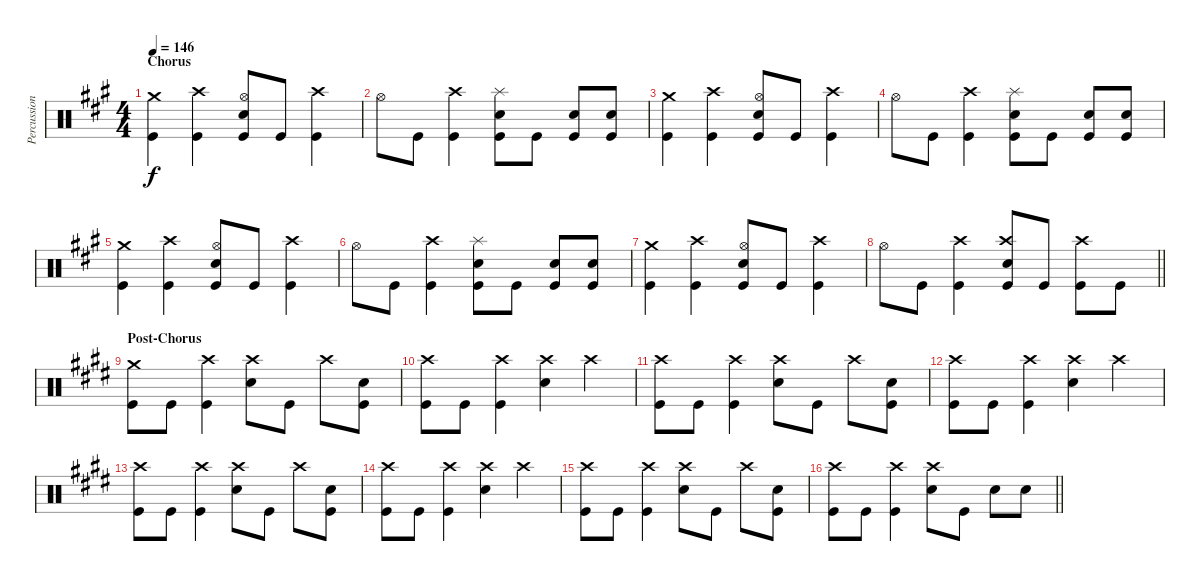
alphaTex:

\track ("Percussion" "Percussion") {instrument percussion}
\staff {score}
\articulation defaults
\ts (4 4)
\section ("" "Chorus")
\tempo 146
\clef neutral
\ks a
("Crash medium (hit)" "Kick (hit)").4{dy f} ("Crash high (hit)" "Kick (hit)").4 ("Hi-Hat (open)" "Electric Snare (hit)" "Kick (hit)").8 "Kick (hit)".8 ("Crash high (hit)" "Kick (hit)").4 |
"Hi-Hat (open)".8 "Kick (hit)".8 ("Crash high (hit)" "Kick (hit)").4 ("Splash (hit)" "Electric Snare (hit)" "Kick (hit)").8 "Kick (hit)".8 ("Electric Snare (hit)" "Kick (hit)").8 ("Electric Snare (hit)" "Kick (hit)").8 |
("Crash medium (hit)" "Kick (hit)").4 ("Crash high (hit)" "Kick (hit)").4 ("Hi-Hat (open)" "Electric Snare (hit)" "Kick (hit)").8 "Kick (hit)".8 ("Crash high (hit)" "Kick (hit)").4 |
"Hi-Hat (open)".8 "Kick (hit)".8 ("Crash high (hit)" "Kick (hit)").4 ("Splash (hit)" "Electric Snare (hit)" "Kick (hit)").8 "Kick (hit)".8 ("Electric Snare (hit)" "Kick (hit)").8 ("Electric Snare (hit)" "Kick (hit)").8 |
("Crash medium (hit)" "Kick (hit)").4 ("Crash high (hit)" "Kick (hit)").4 ("Hi-Hat (open)" "Electric Snare (hit)" "Kick (hit)").8 "Kick (hit)".8 ("Crash high (hit)" "Kick (hit)").4 |
"Hi-Hat (open)".8 "Kick (hit)".8 ("Crash high (hit)" "Kick (hit)").4 ("Splash (hit)" "Electric Snare (hit)" "Kick (hit)").8 "Kick (hit)".8 ("Electric Snare (hit)" "Kick (hit)").8 ("Electric Snare (hit)" "Kick (hit)").8 |
("Crash medium (hit)" "Kick (hit)").4 ("Crash high (hit)" "Kick (hit)").4 ("Hi-Hat (open)" "Electric Snare (hit)" "Kick (hit)").8 "Kick (hit)".8 ("Crash high (hit)" "Kick (hit)").4 |
\barLineRight lightlight "Hi-Hat (open)".8 "Kick (hit)".8
("Crash high (hit)" "Kick (hit)").4 ("Crash high (hit)" "Electric Snare (hit)" "Kick (hit)").8 "Kick (hit)".8 ("Crash high (hit)" "Kick (hit)").8 "Kick (hit)".8 |
\section ("" "Post-Chorus")
\ks e
("Crash medium (hit)" "Kick (hit)").8 "Kick (hit)".8 ("Crash high (hit)" "Kick (hit)").4 ("Crash high (hit)" "Electric Snare (hit)").8 "Kick (hit)".8 "Crash high (hit)".8 ("Electric Snare (hit)" "Kick (hit)").8 |
("Crash high (hit)" "Kick (hit)").8 "Kick (hit)".8 ("Crash high (hit)" "Kick (hit)").4 ("Crash high (hit)" "Electric Snare (hit)").4 "Crash high (hit)".4 |
("Crash high (hit)" "Kick (hit)").8 "Kick (hit)".8 ("Crash high (hit)" "Kick (hit)").4 ("Crash high (hit)" "Electric Snare (hit)").8 "Kick (hit)".8 "Crash high (hit)".8 ("Electric Snare (hit)" "Kick (hit)").8 |
("Crash high (hit)" "Kick (hit)").8 "Kick (hit)".8 ("Crash high (hit)" "Kick (hit)").4 ("Crash high (hit)" "Electric Snare (hit)").4 "Crash high (hit)".4 |
("Crash high (hit)" "Kick (hit)").8 "Kick (hit)".8 ("Crash high (hit)" "Kick (hit)").4 ("Crash high (hit)" "Electric Snare (hit)").8 "Kick (hit)".8 "Crash high (hit)".8 ("Electric Snare (hit)" "Kick (hit)").8 |
("Crash high (hit)" "Kick (hit)").8 "Kick (hit)".8 ("Crash high (hit)" "Kick (hit)").4 ("Crash high (hit)" "Electric Snare (hit)").4 "Crash high (hit)".4 |
("Crash high (hit)" "Kick (hit)").8 "Kick (hit)".8 ("Crash high (hit)" "Kick (hit)").4 ("Crash high (hit)" "Electric Snare (hit)").8 "Kick (hit)".8 "Crash high (hit)".8 ("Electric Snare (hit)" "Kick (hit)").8 |
\barLineRight lightlight
("Crash high (hit)" "Kick (hit)").8 "Kick (hit)".8 ("Crash high (hit)" "Kick (hit)").4 ("Crash high (hit)" "Electric Snare (hit)").8 "Kick (hit)".8 "Electric Snare (hit)".8 "Electric Snare (hit)".8
